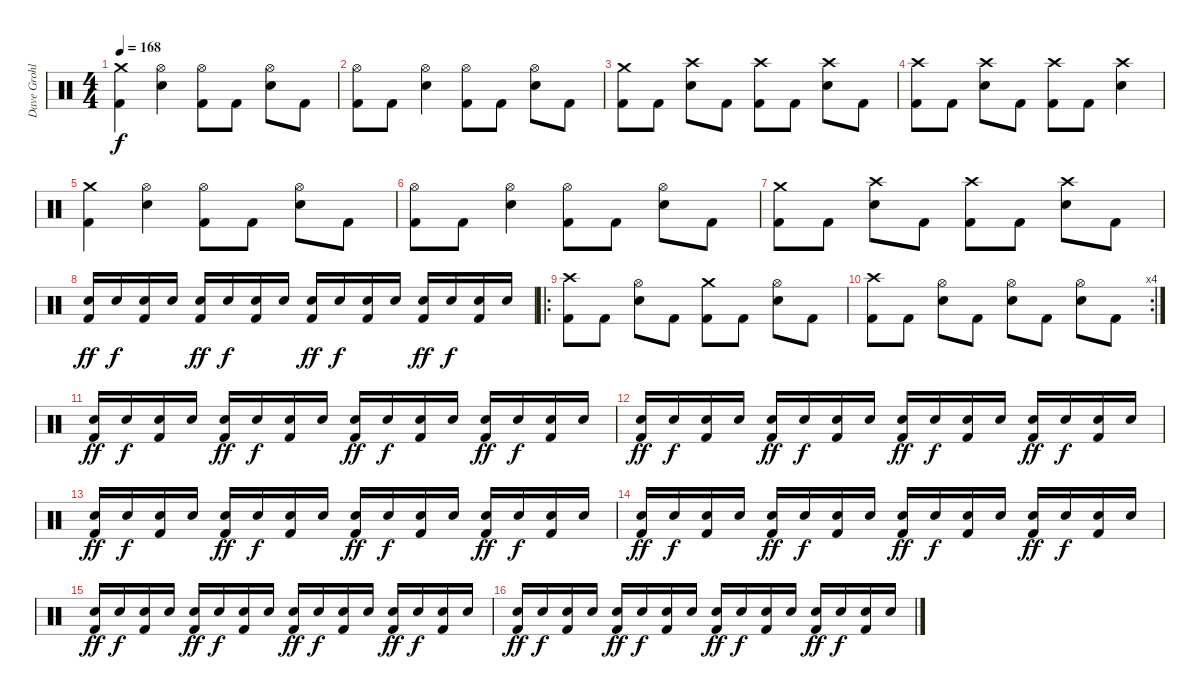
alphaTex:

\track ("Dave Grohl - Drums" "Dave Grohl") {instrument percussion}
\staff {score}
\articulation defaults
\ts (4 4)
\tempo 168
\clef neutral
\ks c
("Crash medium (hit)" "Kick (hit) 2").4{dy f} ("Hi-Hat (open)" "Electric Snare (hit)").4 ("Hi-Hat (open)" "Kick (hit) 2").8 "Kick (hit) 2".8 ("Hi-Hat (open)" "Electric Snare (hit)").8 "Kick (hit) 2".8 |
("Hi-Hat (open)" "Kick (hit) 2").8 "Kick (hit) 2".8 ("Hi-Hat (open)" "Electric Snare (hit)").4 ("Hi-Hat (open)" "Kick (hit) 2").8 "Kick (hit) 2".8 ("Hi-Hat (open)" "Electric Snare (hit)").8 "Kick (hit) 2".8 |
("Crash medium (hit)" "Kick (hit) 2").8 "Kick (hit) 2".8 ("Crash high (hit)" "Electric Snare (hit)").8 "Kick (hit) 2".8 ("Crash high (hit)" "Kick (hit) 2").8 "Kick (hit) 2".8 ("Crash high (hit)" "Electric Snare (hit)").8 "Kick (hit) 2".8 |
("Crash high (hit)" "Kick (hit) 2").8 "Kick (hit) 2".8 ("Crash high (hit)" "Electric Snare (hit)").8 "Kick (hit) 2".8 ("Crash high (hit)" "Kick (hit) 2").8 "Kick (hit) 2".8 ("Crash high (hit)" "Electric Snare (hit)").4 |
("Crash medium (hit)" "Kick (hit) 2").4 ("Hi-Hat (open)" "Electric Snare (hit)").4 ("Hi-Hat (open)" "Kick (hit) 2").8 "Kick (hit) 2".8 ("Hi-Hat (open)" "Electric Snare (hit)").8 "Kick (hit) 2".8 |
("Hi-Hat (open)" "Kick (hit) 2").8 "Kick (hit) 2".8 ("Hi-Hat (open)" "Electric Snare (hit)").4 ("Hi-Hat (open)" "Kick (hit) 2").8 "Kick (hit) 2".8 ("Hi-Hat (open)" "Electric Snare (hit)").8 "Kick (hit) 2".8 |
("Crash medium (hit)" "Kick (hit) 2").8 "Kick (hit) 2".8 ("Crash high (hit)" "Electric Snare (hit)").8 "Kick (hit) 2".8 ("Crash high (hit)" "Kick (hit) 2").8 "Kick (hit) 2".8 ("Crash high (hit)" "Electric Snare (hit)").8 "Kick (hit) 2".8 |
("Electric Snare (hit)" "Kick (hit) 2").16{dy ff volume 12} "Electric Snare (hit)".16{dy f} ("Electric Snare (hit)" "Kick (hit) 2").16 "Electric Snare (hit)".16 ("Electric Snare (hit)" "Kick (hit) 2").16{dy ff} "Electric Snare (hit)".16{dy f} ("Electric Snare (hit)" "Kick (hit) 2").16 "Electric Snare (hit)".16 ("Electric Snare (hit)" "Kick (hit) 2").16{dy ff} "Electric Snare (hit)".16{dy f} ("Electric Snare (hit)" "Kick (hit) 2").16 "Electric Snare (hit)".16 ("Electric Snare (hit)" "Kick (hit) 2").16{dy ff} "Electric Snare (hit)".16{dy f} ("Electric Snare (hit)" "Kick (hit) 2").16 "Electric Snare (hit)".16 |
\ro
("Crash high (hit)" "Kick (hit) 2").8{volume 13} "Kick (hit) 2".8 ("Hi-Hat (open)" "Electric Snare (hit)").8 "Kick (hit) 2".8 ("Crash medium (hit)" "Kick (hit) 2").8 "Kick (hit) 2".8 ("Hi-Hat (open)" "Electric Snare (hit)").8 "Kick (hit) 2".8 |
\rc 4
("Crash high (hit)" "Kick (hit) 2").8{volume 13} "Kick (hit) 2".8 ("Hi-Hat (open)" "Electric Snare (hit)").8 "Kick (hit) 2".8 ("Hi-Hat (open)" "Electric Snare (hit)").8 "Kick (hit) 2".8 ("Hi-Hat (open)" "Electric Snare (hit)").8 "Kick (hit) 2".8 |
("Electric Snare (hit)" "Kick (hit) 2").16{dy ff volume 12} "Electric Snare (hit)".16{dy f} ("Electric Snare (hit)" "Kick (hit) 2").16 "Electric Snare (hit)".16 ("Electric Snare (hit)" "Kick (hit) 2").16{dy ff} "Electric Snare (hit)".16{dy f} ("Electric Snare (hit)" "Kick (hit) 2").16 "Electric Snare (hit)".16 ("Electric Snare (hit)" "Kick (hit) 2").16{dy ff} "Electric Snare (hit)".16{dy f} ("Electric Snare (hit)" "Kick (hit) 2").16 "Electric Snare (hit)".16 ("Electric Snare (hit)" "Kick (hit) 2").16{dy ff} "Electric Snare (hit)".16{dy f} ("Electric Snare (hit)" "Kick (hit) 2").16 "Electric Snare (hit)".16 |
("Electric Snare (hit)" "Kick (hit) 2").16{dy ff} "Electric Snare (hit)".16{dy f} ("Electric Snare (hit)" "Kick (hit) 2").16 "Electric Snare (hit)".16 ("Electric Snare (hit)" "Kick (hit) 2").16{dy ff} "Electric Snare (hit)".16{dy f} ("Electric Snare (hit)" "Kick (hit) 2").16 "Electric Snare (hit)".16 ("Electric Snare (hit)" "Kick (hit) 2").16{dy ff} "Electric Snare (hit)".16{dy f} ("Electric Snare (hit)" "Kick (hit) 2").16 "Electric Snare (hit)".16 ("Electric Snare (hit)" "Kick (hit) 2").16{dy ff} "Electric Snare (hit)".16{dy f} ("Electric Snare (hit)" "Kick (hit) 2").16 "Electric Snare (hit)".16 |
("Electric Snare (hit)" "Kick (hit) 2").16{dy ff} "Electric Snare (hit)".16{dy f} ("Electric Snare (hit)" "Kick (hit) 2").16 "Electric Snare (hit)".16 ("Electric Snare (hit)" "Kick (hit) 2").16{dy ff} "Electric Snare (hit)".16{dy f} ("Electric Snare (hit)" "Kick (hit) 2").16 "Electric Snare (hit)".16 ("Electric Snare (hit)" "Kick (hit) 2").16{dy ff} "Electric Snare (hit)".16{dy f} ("Electric Snare (hit)" "Kick (hit) 2").16 "Electric Snare (hit)".16 ("Electric Snare (hit)" "Kick (hit) 2").16{dy ff} "Electric Snare (hit)".16{dy f} ("Electric Snare (hit)" "Kick (hit) 2").16 "Electric Snare (hit)".16 |
("Electric Snare (hit)" "Kick (hit) 2").16{dy ff} "Electric Snare (hit)".16{dy f} ("Electric Snare (hit)" "Kick (hit) 2").16 "Electric Snare (hit)".16 ("Electric Snare (hit)" "Kick (hit) 2").16{dy ff} "Electric Snare (hit)".16{dy f} ("Electric Snare (hit)" "Kick (hit) 2").16 "Electric Snare (hit)".16 ("Electric Snare (hit)" "Kick (hit) 2").16{dy ff} "Electric Snare (hit)".16{dy f} ("Electric Snare (hit)" "Kick (hit) 2").16 "Electric Snare (hit)".16 ("Electric Snare (hit)" "Kick (hit) 2").16{dy ff} "Electric Snare (hit)".16{dy f} ("Electric Snare (hit)" "Kick (hit) 2").16 "Electric Snare (hit)".16 |
("Electric Snare (hit)" "Kick (hit) 2").16{dy ff volume 12} "Electric Snare (hit)".16{dy f} ("Electric Snare (hit)" "Kick (hit) 2").16 "Electric Snare (hit)".16 ("Electric Snare (hit)" "Kick (hit) 2").16{dy ff} "Electric Snare (hit)".16{dy f} ("Electric Snare (hit)" "Kick (hit) 2").16 "Electric Snare (hit)".16 ("Electric Snare (hit)" "Kick (hit) 2").16{dy ff} "Electric Snare (hit)".16{dy f} ("Electric Snare (hit)" "Kick (hit) 2").16 "Electric Snare (hit)".16 ("Electric Snare (hit)" "Kick (hit) 2").16{dy ff} "Electric Snare (hit)".16{dy f} ("Electric Snare (hit)" "Kick (hit) 2").16 "Electric Snare (hit)".16 |
("Electric Snare (hit)" "Kick (hit) 2").16{dy ff volume 12} "Electric Snare (hit)".16{dy f} ("Electric Snare (hit)" "Kick (hit) 2").16 "Electric Snare (hit)".16 ("Electric Snare (hit)" "Kick (hit) 2").16{dy ff} "Electric Snare (hit)".16{dy f} ("Electric Snare (hit)" "Kick (hit) 2").16 "Electric Snare (hit)".16 ("Electric Snare (hit)" "Kick (hit) 2").16{dy ff} "Electric Snare (hit)".16{dy f} ("Electric Snare (hit)" "Kick (hit) 2").16 "Electric Snare (hit)".16 ("Electric Snare (hit)" "Kick (hit) 2").16{dy ff} "Electric Snare (hit)".16{dy f} ("Electric Snare (hit)" "Kick (hit) 2").16 "Electric Snare (hit)".16
